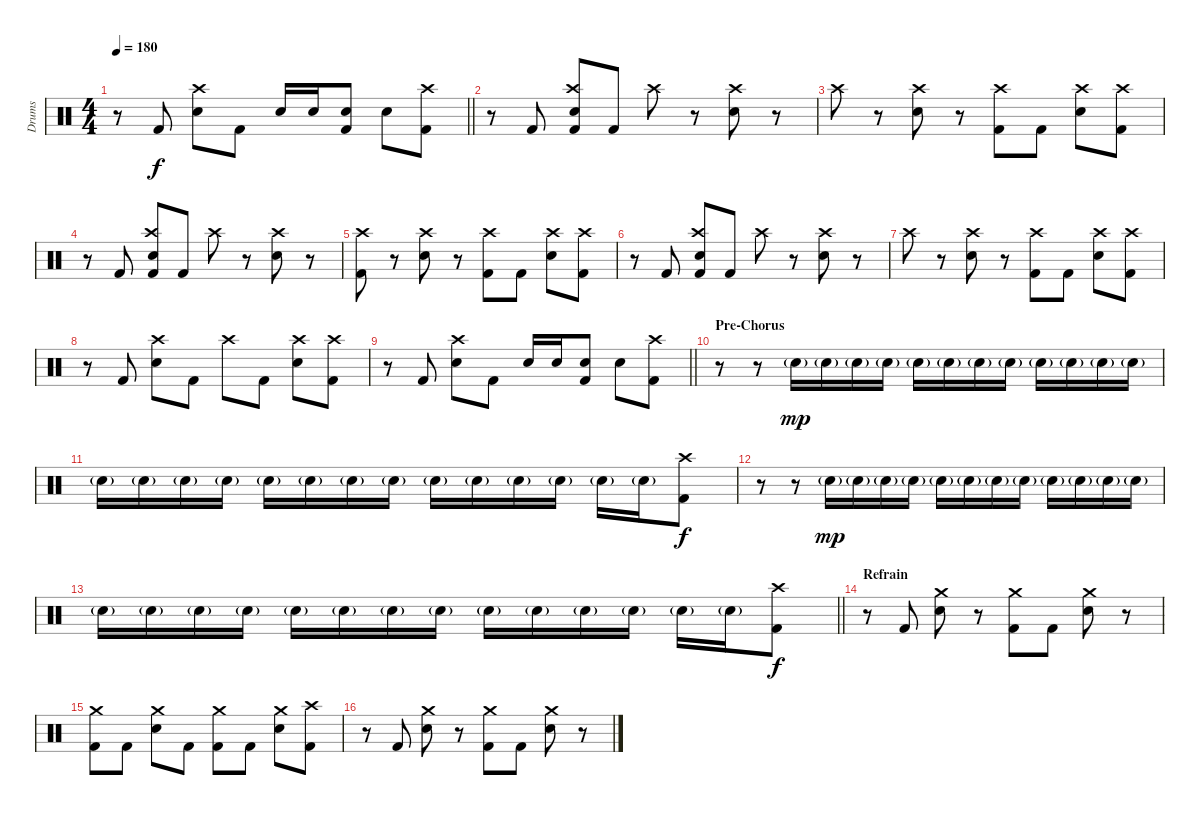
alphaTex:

\track ("Drums" "Drums") {instrument percussion}
\staff {score}
\articulation defaults
\ts (4 4)
\tempo 180
\clef neutral
\barLineRight lightlight
\ks c
r.8{dy f} "Kick (hit) 2".8 ("Crash high (hit)" "Snare (hit) 2").8 "Kick (hit) 2".8 "Snare (hit) 2".16 "Snare (hit) 2".16 ("Snare (hit) 2" "Kick (hit) 2").8 "Snare (hit) 2".8 ("Crash high (hit)" "Kick (hit) 2").8 |
r.8 "Kick (hit) 2".8 ("Crash high (hit)" "Snare (hit) 2" "Kick (hit) 2").8 "Kick (hit) 2".8 "Crash high (hit)".8 r.8 ("Crash high (hit)" "Snare (hit) 2").8 r.8 |
"Crash high (hit)".8 r.8 ("Crash high (hit)" "Snare (hit) 2").8 r.8 ("Crash high (hit)" "Kick (hit) 2").8 "Kick (hit) 2".8 ("Crash high (hit)" "Snare (hit) 2").8 ("Crash high (hit)" "Kick (hit) 2").8 |
r.8 "Kick (hit) 2".8 ("Crash high (hit)" "Snare (hit) 2" "Kick (hit) 2").8 "Kick (hit) 2".8 "Crash high (hit)".8 r.8 ("Crash high (hit)" "Snare (hit) 2").8 r.8 |
("Crash high (hit)" "Kick (hit) 2").8 r.8 ("Crash high (hit)" "Snare (hit) 2").8 r.8 ("Crash high (hit)" "Kick (hit) 2").8 "Kick (hit) 2".8 ("Crash high (hit)" "Snare (hit) 2").8 ("Crash high (hit)" "Kick (hit) 2").8 |
r.8 "Kick (hit) 2".8 ("Crash high (hit)" "Snare (hit) 2" "Kick (hit) 2").8 "Kick (hit) 2".8 "Crash high (hit)".8 r.8 ("Crash high (hit)" "Snare (hit) 2").8 r.8 |
"Crash high (hit)".8 r.8 ("Crash high (hit)" "Snare (hit) 2").8 r.8 ("Crash high (hit)" "Kick (hit) 2").8 "Kick (hit) 2".8 ("Crash high (hit)" "Snare (hit) 2").8 ("Crash high (hit)" "Kick (hit) 2").8 |
r.8 "Kick (hit) 2".8 ("Crash high (hit)" "Snare (hit) 2").8 "Kick (hit) 2".8 "Crash high (hit)".8 "Kick (hit) 2".8 ("Crash high (hit)" "Snare (hit) 2").8 ("Crash high (hit)" "Kick (hit) 2").8 |
\barLineRight lightlight
r.8 "Kick (hit) 2".8 ("Crash high (hit)" "Snare (hit) 2").8 "Kick (hit) 2".8 "Snare (hit) 2".16 "Snare (hit) 2".16 ("Snare (hit) 2" "Kick (hit) 2").8 "Snare (hit) 2".8 ("Crash high (hit)" "Kick (hit) 2").8 |
\section ("" "Pre-Chorus")
r.8 r.8 "Snare (hit) 2"{g}.16{dy mp} "Snare (hit) 2"{g}.16 "Snare (hit) 2"{g}.16 "Snare (hit) 2"{g}.16 "Snare (hit) 2"{g}.16 "Snare (hit) 2"{g}.16 "Snare (hit) 2"{g}.16 "Snare (hit) 2"{g}.16 "Snare (hit) 2"{g}.16 "Snare (hit) 2"{g}.16 "Snare (hit) 2"{g}.16 "Snare (hit) 2"{g}.16 |
"Snare (hit) 2"{g}.16 "Snare (hit) 2"{g}.16 "Snare (hit) 2"{g}.16 "Snare (hit) 2"{g}.16 "Snare (hit) 2"{g}.16 "Snare (hit) 2"{g}.16 "Snare (hit) 2"{g}.16 "Snare (hit) 2"{g}.16 "Snare (hit) 2"{g}.16 "Snare (hit) 2"{g}.16 "Snare (hit) 2"{g}.16 "Snare (hit) 2"{g}.16 "Snare (hit) 2"{g}.16 "Snare (hit) 2"{g}.16 ("Crash high (hit)" "Kick (hit) 2").8{dy f} |
r.8 r.8 "Snare (hit) 2"{g}.16{dy mp} "Snare (hit) 2"{g}.16 "Snare (hit) 2"{g}.16 "Snare (hit) 2"{g}.16 "Snare (hit) 2"{g}.16 "Snare (hit) 2"{g}.16 "Snare (hit) 2"{g}.16 "Snare (hit) 2"{g}.16 "Snare (hit) 2"{g}.16 "Snare (hit) 2"{g}.16 "Snare (hit) 2"{g}.16 "Snare (hit) 2"{g}.16 |
\barLineRight lightlight "Snare (hit) 2"{g}.16 "Snare (hit) 2"{g}.16 "Snare (hit) 2"{g}.16 "Snare (hit) 2"{g}.16 "Snare (hit) 2"{g}.16 "Snare (hit) 2"{g}.16 "Snare (hit) 2"{g}.16 "Snare (hit) 2"{g}.16 "Snare (hit) 2"{g}.16 "Snare (hit) 2"{g}.16 "Snare (hit) 2"{g}.16 "Snare (hit) 2"{g}.16 "Snare (hit) 2"{g}.16 "Snare (hit) 2"{g}.16
("Crash high (hit)" "Kick (hit) 2").8{dy f} |
\section ("" "Refrain")
r.8 "Kick (hit) 2".8 ("Crash medium (hit)" "Snare (hit) 2").8 r.8 ("Crash medium (hit)" "Kick (hit) 2").8 "Kick (hit) 2".8 ("Crash medium (hit)" "Snare (hit) 2").8 r.8 |
("Crash medium (hit)" "Kick (hit) 2").8 "Kick (hit) 2".8 ("Crash medium (hit)" "Snare (hit) 2").8 "Kick (hit) 2".8 ("Crash medium (hit)" "Kick (hit) 2").8 "Kick (hit) 2".8 ("Crash medium (hit)" "Snare (hit) 2").8 ("Crash high (hit)" "Kick (hit) 2").8 |
r.8 "Kick (hit) 2".8 ("Crash medium (hit)" "Snare (hit) 2").8 r.8 ("Crash medium (hit)" "Kick (hit) 2").8 "Kick (hit) 2".8 ("Crash medium (hit)" "Snare (hit) 2").8 r.8
